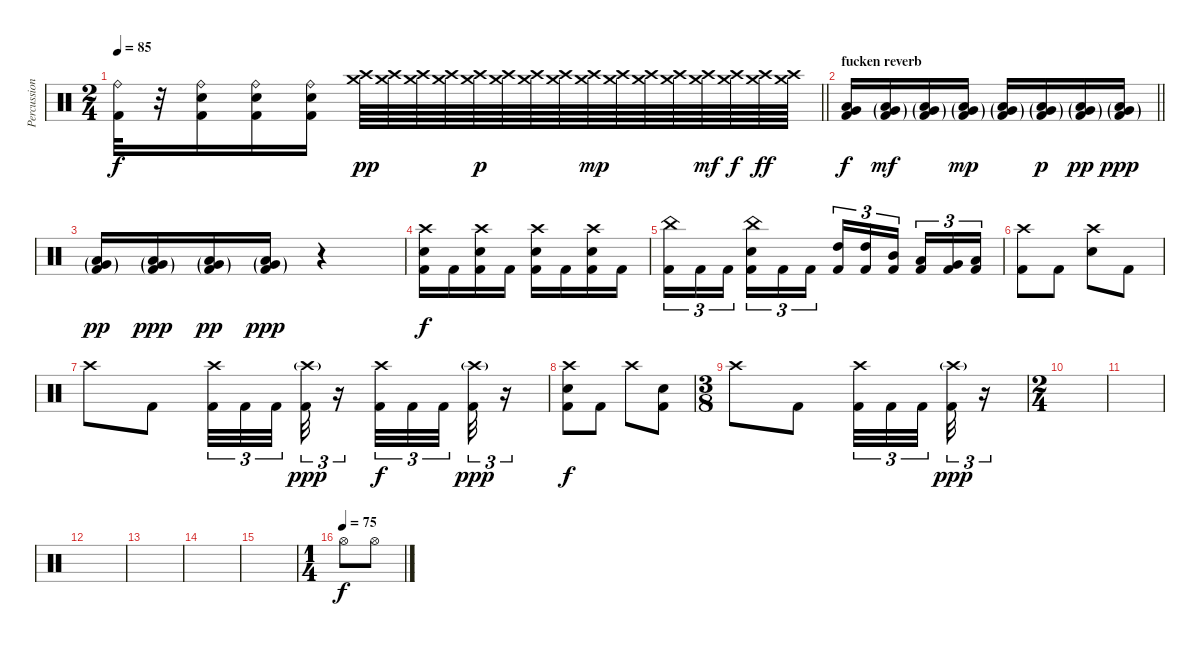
\track ("Percussion" "Percussion") {instrument percussion}
\staff {score}
\articulation defaults
\ts (2 4)
\tempo 85
\clef neutral
\barLineRight lightlight
\ks c
("Kick (hit) 2" "Ride (bell)").32{dy f} r.32 ("Kick (hit) 2" "Snare (hit) 2" "Ride (bell)").16 ("Kick (hit) 2" "Snare (hit) 2" "Ride (bell)").16 ("Kick (hit) 2" "Snare (hit) 2" "Ride (bell)").16 ("Crash high (hit)" "Crash medium (hit)").64{dy pp} ("Crash high (hit)" "Crash medium (hit)").64 ("Crash high (hit)" "Crash medium (hit)").64 ("Crash high (hit)" "Crash medium (hit)").64 ("Crash high (hit)" "Crash medium (hit)").64{dy p} ("Crash high (hit)" "Crash medium (hit)").64 ("Crash high (hit)" "Crash medium (hit)").64 ("Crash high (hit)" "Crash medium (hit)").64 ("Crash high (hit)" "Crash medium (hit)").64{dy mp} ("Crash high (hit)" "Crash medium (hit)").64 ("Crash high (hit)" "Crash medium (hit)").64 ("Crash high (hit)" "Crash medium (hit)").64 ("Crash high (hit)" "Crash medium (hit)").64{dy mf} ("Crash high (hit)" "Crash medium (hit)").64{dy f} ("Crash high (hit)" "Crash medium (hit)").64{dy ff} ("Crash high (hit)" "Crash medium (hit)").64 |
\section ("" "fucken reverb")
\barLineRight lightlight
("Kick (hit) 2" "Low Floor Tom (hit)" "Very Low Tom (hit)").16{dy f} ("Kick (hit) 2"{g} "Low Floor Tom (hit)"{g} "Very Low Tom (hit)"{g}).16{dy mf} ("Kick (hit) 2"{g} "Low Floor Tom (hit)"{g} "Very Low Tom (hit)"{g}).16 ("Kick (hit) 2"{g} "Low Floor Tom (hit)"{g} "Very Low Tom (hit)"{g}).16{dy mp} ("Kick (hit) 2"{g} "Low Floor Tom (hit)"{g} "Very Low Tom (hit)"{g}).16 ("Kick (hit) 2"{g} "Low Floor Tom (hit)"{g} "Very Low Tom (hit)"{g}).16{dy p} ("Kick (hit) 2"{g} "Low Floor Tom (hit)"{g} "Very Low Tom (hit)"{g}).16{dy pp} ("Kick (hit) 2"{g} "Low Floor Tom (hit)"{g} "Very Low Tom (hit)"{g}).16{dy ppp} |
("Kick (hit) 2"{g} "Low Floor Tom (hit)"{g} "Very Low Tom (hit)"{g}).16{dy pp} ("Kick (hit) 2"{g} "Low Floor Tom (hit)"{g} "Very Low Tom (hit)"{g}).16{dy ppp} ("Kick (hit) 2"{g} "Low Floor Tom (hit)"{g} "Very Low Tom (hit)"{g}).16{dy pp} ("Kick (hit) 2"{g} "Low Floor Tom (hit)"{g} "Very Low Tom (hit)"{g}).16{dy ppp} r.4 |
("Crash high (hit)" "Snare (hit) 2" "Kick (hit) 2").16{dy f} "Kick (hit) 2".16 ("Crash high (hit)" "Snare (hit) 2" "Kick (hit) 2").16 "Kick (hit) 2".16 ("Crash high (hit)" "Snare (hit) 2" "Kick (hit) 2").16 "Kick (hit) 2".16 ("Crash high (hit)" "Snare (hit) 2" "Kick (hit) 2").16 "Kick (hit) 2".16 |
("China (hit)" "Kick (hit) 2").16{tu (3 2)} "Kick (hit) 2".16{tu (3 2)} "Kick (hit) 2".16{tu (3 2) beam splitsecondary} ("China (hit)" "Snare (hit) 2" "Kick (hit) 2").16{tu (3 2)} "Kick (hit) 2".16{tu (3 2)} "Kick (hit) 2".16{tu (3 2)} ("High Tom (hit)" "Kick (hit) 2").16{tu (3 2)} ("High Tom (hit)" "Kick (hit) 2").16{tu (3 2)} ("Mid Tom (hit)" "Kick (hit) 2").16{tu (3 2) beam splitsecondary} ("Low Tom (hit)" "Kick (hit) 2").16{tu (3 2)} ("Very Low Tom (hit)" "Kick (hit) 2").16{tu (3 2)} ("Low Floor Tom (hit)" "Kick (hit) 2").16{tu (3 2)} |
("Crash high (hit)" "Kick (hit) 2").8 "Kick (hit) 2".8 ("Crash high (hit)" "Snare (hit) 2").8 "Kick (hit) 2".8 |
"Crash high (hit)".8 "Kick (hit) 2".8 ("Crash high (hit)" "Kick (hit) 2").32{tu (3 2)} "Kick (hit) 2".32{tu (3 2)} "Kick (hit) 2".32{tu (3 2) beam splitsecondary} ("Crash high (hit)"{g} "Kick (hit) 2").32{tu (3 2) dy ppp} r.16{tu (3 2)} ("Crash high (hit)" "Kick (hit) 2").32{tu (3 2) dy f} "Kick (hit) 2".32{tu (3 2)} "Kick (hit) 2".32{tu (3 2) beam splitsecondary} ("Crash high (hit)"{g} "Kick (hit) 2").32{tu (3 2) dy ppp} r.16{tu (3 2)} |
("Crash high (hit)" "Snare (hit) 2" "Kick (hit) 2").8{dy f} "Kick (hit) 2".8 "Crash high (hit)".8 ("Snare (hit) 2" "Kick (hit) 2").8 |
\ts (3 8)
"Crash high (hit)".8 "Kick (hit) 2".8 ("Crash high (hit)" "Kick (hit) 2").32{tu (3 2)} "Kick (hit) 2".32{tu (3 2)} "Kick (hit) 2".32{tu (3 2) beam splitsecondary} ("Crash high (hit)"{g} "Kick (hit) 2").32{tu (3 2) dy ppp} r.16{tu (3 2)} |
\ts (2 4)
|
|
|
|
|
|
\ts (1 4)
\tempo (75)
"Hi-Hat (open)".8{dy f} "Hi-Hat (open)".8
